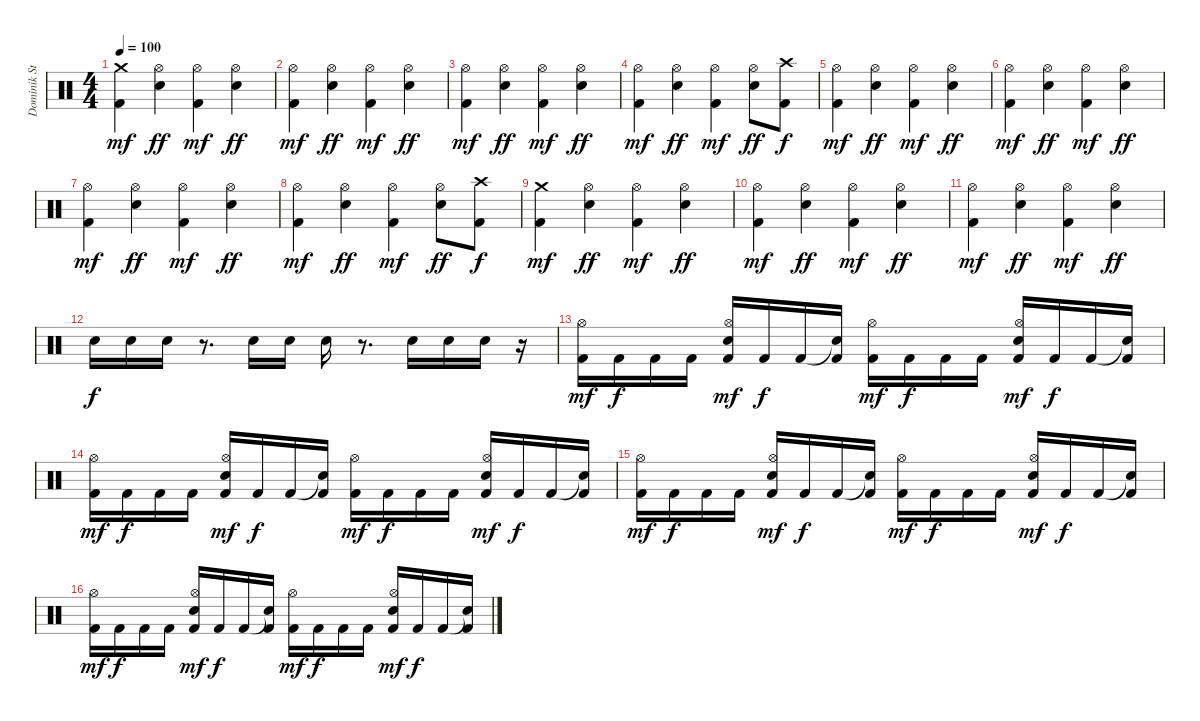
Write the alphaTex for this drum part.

\track ("Dominik Storch" "Dominik St") {instrument percussion}
\staff {score}
\articulation defaults
\ts (4 4)
\tempo 100
\clef neutral
\ks c
("Crash medium (hit)" "Kick (hit) 2").4{dy mf} ("Hi-Hat (open)" "Electric Snare (hit)").4{dy ff} ("Hi-Hat (open)" "Kick (hit) 2").4{dy mf} ("Hi-Hat (open)" "Electric Snare (hit)").4{dy ff} |
("Hi-Hat (open)" "Kick (hit) 2").4{dy mf} ("Hi-Hat (open)" "Electric Snare (hit)").4{dy ff} ("Hi-Hat (open)" "Kick (hit) 2").4{dy mf} ("Hi-Hat (open)" "Electric Snare (hit)").4{dy ff} |
("Hi-Hat (open)" "Kick (hit) 2").4{dy mf} ("Hi-Hat (open)" "Electric Snare (hit)").4{dy ff} ("Hi-Hat (open)" "Kick (hit) 2").4{dy mf} ("Hi-Hat (open)" "Electric Snare (hit)").4{dy ff} |
("Hi-Hat (open)" "Kick (hit) 2").4{dy mf} ("Hi-Hat (open)" "Electric Snare (hit)").4{dy ff} ("Hi-Hat (open)" "Kick (hit) 2").4{dy mf} ("Hi-Hat (open)" "Electric Snare (hit)").8{dy ff} ("Crash high (hit)" "Kick (hit) 2").8{dy f} |
("Hi-Hat (open)" "Kick (hit) 2").4{dy mf} ("Hi-Hat (open)" "Electric Snare (hit)").4{dy ff} ("Hi-Hat (open)" "Kick (hit) 2").4{dy mf} ("Hi-Hat (open)" "Electric Snare (hit)").4{dy ff} |
("Hi-Hat (open)" "Kick (hit) 2").4{dy mf} ("Hi-Hat (open)" "Electric Snare (hit)").4{dy ff} ("Hi-Hat (open)" "Kick (hit) 2").4{dy mf} ("Hi-Hat (open)" "Electric Snare (hit)").4{dy ff} |
("Hi-Hat (open)" "Kick (hit) 2").4{dy mf} ("Hi-Hat (open)" "Electric Snare (hit)").4{dy ff} ("Hi-Hat (open)" "Kick (hit) 2").4{dy mf} ("Hi-Hat (open)" "Electric Snare (hit)").4{dy ff} |
("Hi-Hat (open)" "Kick (hit) 2").4{dy mf} ("Hi-Hat (open)" "Electric Snare (hit)").4{dy ff} ("Hi-Hat (open)" "Kick (hit) 2").4{dy mf} ("Hi-Hat (open)" "Electric Snare (hit)").8{dy ff} ("Crash high (hit)" "Kick (hit) 2").8{dy f} |
("Crash medium (hit)" "Kick (hit) 2").4{dy mf} ("Hi-Hat (open)" "Electric Snare (hit)").4{dy ff} ("Hi-Hat (open)" "Kick (hit) 2").4{dy mf} ("Hi-Hat (open)" "Electric Snare (hit)").4{dy ff} |
("Hi-Hat (open)" "Kick (hit) 2").4{dy mf} ("Hi-Hat (open)" "Electric Snare (hit)").4{dy ff} ("Hi-Hat (open)" "Kick (hit) 2").4{dy mf} ("Hi-Hat (open)" "Electric Snare (hit)").4{dy ff} |
("Hi-Hat (open)" "Kick (hit) 2").4{dy mf} ("Hi-Hat (open)" "Electric Snare (hit)").4{dy ff} ("Hi-Hat (open)" "Kick (hit) 2").4{dy mf} ("Hi-Hat (open)" "Electric Snare (hit)").4{dy ff} |
"Electric Snare (hit)".16{dy f} "Electric Snare (hit)".16 "Electric Snare (hit)".16 r.8{d} "Electric Snare (hit)".16 "Electric Snare (hit)".16 "Electric Snare (hit)".16 r.8{d} "Electric Snare (hit)".16 "Electric Snare (hit)".16 "Electric Snare (hit)".16 r.16 |
("Hi-Hat (open)" "Kick (hit) 2").16{dy mf} "Kick (hit) 2".16{dy f} "Kick (hit) 2".16 "Kick (hit) 2".16 ("Hi-Hat (open)" "Electric Snare (hit)" "Kick (hit) 2").16{dy mf} "Kick (hit) 2".16{dy f} "Kick (hit) 2".16 ("Snare (hit)"{t} "Kick (hit) 2").16 ("Hi-Hat (open)" "Kick (hit) 2").16{dy mf} "Kick (hit) 2".16{dy f} "Kick (hit) 2".16 "Kick (hit) 2".16 ("Hi-Hat (open)" "Electric Snare (hit)" "Kick (hit) 2").16{dy mf} "Kick (hit) 2".16{dy f} "Kick (hit) 2".16 ("Snare (hit)"{t} "Kick (hit) 2").16 |
("Hi-Hat (open)" "Kick (hit) 2").16{dy mf} "Kick (hit) 2".16{dy f} "Kick (hit) 2".16 "Kick (hit) 2".16 ("Hi-Hat (open)" "Electric Snare (hit)" "Kick (hit) 2").16{dy mf} "Kick (hit) 2".16{dy f} "Kick (hit) 2".16 ("Snare (hit)"{t} "Kick (hit) 2").16 ("Hi-Hat (open)" "Kick (hit) 2").16{dy mf} "Kick (hit) 2".16{dy f} "Kick (hit) 2".16 "Kick (hit) 2".16 ("Hi-Hat (open)" "Electric Snare (hit)" "Kick (hit) 2").16{dy mf} "Kick (hit) 2".16{dy f} "Kick (hit) 2".16 ("Snare (hit)"{t} "Kick (hit) 2").16 |
("Hi-Hat (open)" "Kick (hit) 2").16{dy mf} "Kick (hit) 2".16{dy f} "Kick (hit) 2".16 "Kick (hit) 2".16 ("Hi-Hat (open)" "Electric Snare (hit)" "Kick (hit) 2").16{dy mf} "Kick (hit) 2".16{dy f} "Kick (hit) 2".16 ("Snare (hit)"{t} "Kick (hit) 2").16 ("Hi-Hat (open)" "Kick (hit) 2").16{dy mf} "Kick (hit) 2".16{dy f} "Kick (hit) 2".16 "Kick (hit) 2".16 ("Hi-Hat (open)" "Electric Snare (hit)" "Kick (hit) 2").16{dy mf} "Kick (hit) 2".16{dy f} "Kick (hit) 2".16 ("Snare (hit)"{t} "Kick (hit) 2").16 |
("Hi-Hat (open)" "Kick (hit) 2").16{dy mf} "Kick (hit) 2".16{dy f} "Kick (hit) 2".16 "Kick (hit) 2".16 ("Hi-Hat (open)" "Electric Snare (hit)" "Kick (hit) 2").16{dy mf} "Kick (hit) 2".16{dy f} "Kick (hit) 2".16 ("Snare (hit)"{t} "Kick (hit) 2").16 ("Hi-Hat (open)" "Kick (hit) 2").16{dy mf} "Kick (hit) 2".16{dy f} "Kick (hit) 2".16 "Kick (hit) 2".16 ("Hi-Hat (open)" "Electric Snare (hit)" "Kick (hit) 2").16{dy mf} "Kick (hit) 2".16{dy f} "Kick (hit) 2".16 ("Snare (hit)"{t} "Kick (hit) 2").16
